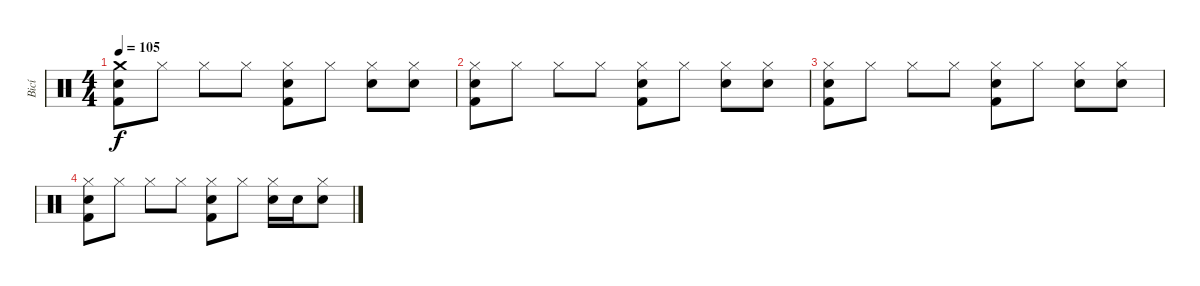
\track ("Bicí" "Bicí") {instrument percussion}
\staff {score}
\articulation defaults
\ts (4 4)
\tempo 105
\clef neutral
\ks c
("Crash medium (hit)" "Electric Snare (hit)" "Kick (hit) 2").8{dy f} "Hi-Hat (closed)".8 "Hi-Hat (closed)".8 "Hi-Hat (closed)".8 ("Hi-Hat (closed)" "Electric Snare (hit)" "Kick (hit) 2").8 "Hi-Hat (closed)".8 ("Hi-Hat (closed)" "Electric Snare (hit)").8 ("Hi-Hat (closed)" "Electric Snare (hit)").8 |
("Hi-Hat (closed)" "Electric Snare (hit)" "Kick (hit) 2").8 "Hi-Hat (closed)".8 "Hi-Hat (closed)".8 "Hi-Hat (closed)".8 ("Hi-Hat (closed)" "Electric Snare (hit)" "Kick (hit) 2").8 "Hi-Hat (closed)".8 ("Hi-Hat (closed)" "Electric Snare (hit)").8 ("Hi-Hat (closed)" "Electric Snare (hit)").8 |
("Hi-Hat (closed)" "Electric Snare (hit)" "Kick (hit) 2").8 "Hi-Hat (closed)".8 "Hi-Hat (closed)".8 "Hi-Hat (closed)".8 ("Hi-Hat (closed)" "Electric Snare (hit)" "Kick (hit) 2").8 "Hi-Hat (closed)".8 ("Hi-Hat (closed)" "Electric Snare (hit)").8 ("Hi-Hat (closed)" "Electric Snare (hit)").8 |
("Hi-Hat (closed)" "Electric Snare (hit)" "Kick (hit) 2").8 "Hi-Hat (closed)".8 "Hi-Hat (closed)".8 "Hi-Hat (closed)".8 ("Hi-Hat (closed)" "Electric Snare (hit)" "Kick (hit) 2").8 "Hi-Hat (closed)".8 ("Hi-Hat (closed)" "Electric Snare (hit)").16 "Electric Snare (hit)".16 ("Hi-Hat (closed)" "Electric Snare (hit)").8
